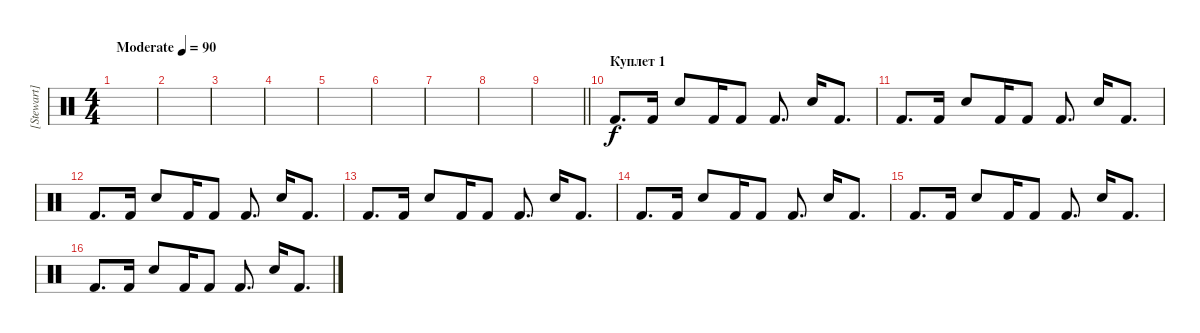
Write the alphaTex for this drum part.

\track ("[Stewart] (drums)" "[Stewart] ") {instrument percussion}
\staff {score}
\articulation defaults
\ts (4 4)
\tempo (90 "Moderate")
\clef neutral
\ks c
|
|
|
|
|
|
|
|
\barLineRight lightlight
|
\section ("" "Куплет 1")
"Kick (hit) 2".8{d} "Kick (hit) 2".16 "Snare (hit) 2".8 "Kick (hit) 2".16 "Kick (hit) 2".8 "Kick (hit) 2".8{d} "Snare (hit) 2".16 "Kick (hit) 2".8{d} |
"Kick (hit) 2".8{d} "Kick (hit) 2".16 "Snare (hit) 2".8 "Kick (hit) 2".16 "Kick (hit) 2".8 "Kick (hit) 2".8{d} "Snare (hit) 2".16 "Kick (hit) 2".8{d} |
"Kick (hit) 2".8{d} "Kick (hit) 2".16 "Snare (hit) 2".8 "Kick (hit) 2".16 "Kick (hit) 2".8 "Kick (hit) 2".8{d} "Snare (hit) 2".16 "Kick (hit) 2".8{d} |
"Kick (hit) 2".8{d} "Kick (hit) 2".16 "Snare (hit) 2".8 "Kick (hit) 2".16 "Kick (hit) 2".8 "Kick (hit) 2".8{d} "Snare (hit) 2".16 "Kick (hit) 2".8{d} |
"Kick (hit) 2".8{d} "Kick (hit) 2".16 "Snare (hit) 2".8 "Kick (hit) 2".16 "Kick (hit) 2".8 "Kick (hit) 2".8{d} "Snare (hit) 2".16 "Kick (hit) 2".8{d} |
"Kick (hit) 2".8{d} "Kick (hit) 2".16 "Snare (hit) 2".8 "Kick (hit) 2".16 "Kick (hit) 2".8 "Kick (hit) 2".8{d} "Snare (hit) 2".16 "Kick (hit) 2".8{d} |
"Kick (hit) 2".8{d} "Kick (hit) 2".16 "Snare (hit) 2".8 "Kick (hit) 2".16 "Kick (hit) 2".8 "Kick (hit) 2".8{d} "Snare (hit) 2".16 "Kick (hit) 2".8{d}
